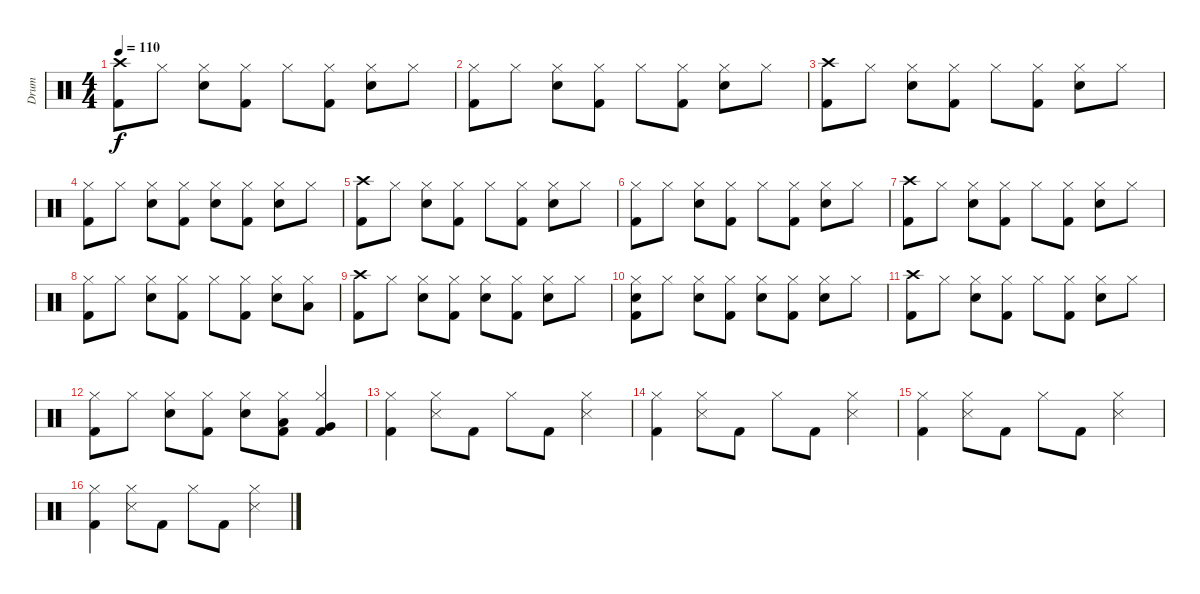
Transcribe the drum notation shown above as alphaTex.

\track ("Drum" "Drum") {instrument percussion}
\staff {score}
\articulation defaults
\ts (4 4)
\tempo 110
\clef neutral
\ks c
("Crash high (hit)" "Kick (hit) 2").8{dy f} "Hi-Hat (closed)".8 ("Hi-Hat (closed)" "Electric Snare (hit)").8 ("Hi-Hat (closed)" "Kick (hit) 2").8 "Hi-Hat (closed)".8 ("Hi-Hat (closed)" "Kick (hit) 2").8 ("Hi-Hat (closed)" "Electric Snare (hit)").8 "Hi-Hat (closed)".8 |
("Hi-Hat (closed)" "Kick (hit) 2").8 "Hi-Hat (closed)".8 ("Hi-Hat (closed)" "Electric Snare (hit)").8 ("Hi-Hat (closed)" "Kick (hit) 2").8 "Hi-Hat (closed)".8 ("Hi-Hat (closed)" "Kick (hit) 2").8 ("Hi-Hat (closed)" "Electric Snare (hit)").8 "Hi-Hat (closed)".8 |
("Crash high (hit)" "Kick (hit) 2").8 "Hi-Hat (closed)".8 ("Hi-Hat (closed)" "Electric Snare (hit)").8 ("Hi-Hat (closed)" "Kick (hit) 2").8 "Hi-Hat (closed)".8 ("Hi-Hat (closed)" "Kick (hit) 2").8 ("Hi-Hat (closed)" "Electric Snare (hit)").8 "Hi-Hat (closed)".8 |
("Hi-Hat (closed)" "Kick (hit) 2").8 "Hi-Hat (closed)".8 ("Hi-Hat (closed)" "Electric Snare (hit)").8 ("Hi-Hat (closed)" "Kick (hit) 2").8 ("Hi-Hat (closed)" "Electric Snare (hit)").8 ("Hi-Hat (closed)" "Kick (hit) 2").8 ("Hi-Hat (closed)" "Electric Snare (hit)").8 "Hi-Hat (closed)".8 |
("Crash high (hit)" "Kick (hit) 2").8 "Hi-Hat (closed)".8 ("Hi-Hat (closed)" "Electric Snare (hit)").8 ("Hi-Hat (closed)" "Kick (hit) 2").8 "Hi-Hat (closed)".8 ("Hi-Hat (closed)" "Kick (hit) 2").8 ("Hi-Hat (closed)" "Electric Snare (hit)").8 "Hi-Hat (closed)".8 |
("Hi-Hat (closed)" "Kick (hit) 2").8 "Hi-Hat (closed)".8 ("Hi-Hat (closed)" "Electric Snare (hit)").8 ("Hi-Hat (closed)" "Kick (hit) 2").8 "Hi-Hat (closed)".8 ("Hi-Hat (closed)" "Kick (hit) 2").8 ("Hi-Hat (closed)" "Electric Snare (hit)").8 "Hi-Hat (closed)".8 |
("Crash high (hit)" "Kick (hit) 2").8 "Hi-Hat (closed)".8 ("Hi-Hat (closed)" "Electric Snare (hit)").8 ("Hi-Hat (closed)" "Kick (hit) 2").8 "Hi-Hat (closed)".8 ("Hi-Hat (closed)" "Kick (hit) 2").8 ("Hi-Hat (closed)" "Electric Snare (hit)").8 "Hi-Hat (closed)".8 |
("Hi-Hat (closed)" "Kick (hit) 2").8 "Hi-Hat (closed)".8 ("Hi-Hat (closed)" "Electric Snare (hit)").8 ("Hi-Hat (closed)" "Kick (hit) 2").8 "Hi-Hat (closed)".8 ("Hi-Hat (closed)" "Kick (hit) 2").8 ("Hi-Hat (closed)" "Electric Snare (hit)").8 ("Hi-Hat (closed)" "Low Tom (hit)").8 |
("Crash high (hit)" "Kick (hit) 2").8 "Hi-Hat (closed)".8 ("Hi-Hat (closed)" "Electric Snare (hit)").8 ("Hi-Hat (closed)" "Kick (hit) 2").8 ("Hi-Hat (closed)" "Electric Snare (hit)").8 ("Hi-Hat (closed)" "Kick (hit) 2").8 ("Hi-Hat (closed)" "Electric Snare (hit)").8 "Hi-Hat (closed)".8 |
("Hi-Hat (closed)" "Electric Snare (hit)" "Kick (hit) 2").8 "Hi-Hat (closed)".8 ("Hi-Hat (closed)" "Electric Snare (hit)").8 ("Hi-Hat (closed)" "Kick (hit) 2").8 ("Hi-Hat (closed)" "Electric Snare (hit)").8 ("Hi-Hat (closed)" "Kick (hit) 2").8 ("Hi-Hat (closed)" "Electric Snare (hit)").8 "Hi-Hat (closed)".8 |
("Crash high (hit)" "Kick (hit) 2").8 "Hi-Hat (closed)".8 ("Hi-Hat (closed)" "Electric Snare (hit)").8 ("Hi-Hat (closed)" "Kick (hit) 2").8 "Hi-Hat (closed)".8 ("Hi-Hat (closed)" "Kick (hit) 2").8 ("Hi-Hat (closed)" "Electric Snare (hit)").8 "Hi-Hat (closed)".8 |
("Hi-Hat (closed)" "Kick (hit) 2").8 "Hi-Hat (closed)".8 ("Hi-Hat (closed)" "Electric Snare (hit)").8 ("Hi-Hat (closed)" "Kick (hit) 2").8 ("Hi-Hat (closed)" "Electric Snare (hit)").8 ("Hi-Hat (closed)" "Low Tom (hit)" "Kick (hit) 2").8 ("Hi-Hat (closed)" "Very Low Tom (hit)" "Kick (hit) 2").4 |
("Hi-Hat (closed)" "Kick (hit) 2").4 ("Hi-Hat (closed)" "Snare (side stick) 3").8 "Kick (hit) 2".8 "Hi-Hat (closed)".8 "Kick (hit) 2".8 ("Hi-Hat (closed)" "Snare (side stick) 3").4 |
("Hi-Hat (closed)" "Kick (hit) 2").4 ("Hi-Hat (closed)" "Snare (side stick) 3").8 "Kick (hit) 2".8 "Hi-Hat (closed)".8 "Kick (hit) 2".8 ("Hi-Hat (closed)" "Snare (side stick) 3").4 |
("Hi-Hat (closed)" "Kick (hit) 2").4 ("Hi-Hat (closed)" "Snare (side stick) 3").8 "Kick (hit) 2".8 "Hi-Hat (closed)".8 "Kick (hit) 2".8 ("Hi-Hat (closed)" "Snare (side stick) 3").4 |
("Hi-Hat (closed)" "Kick (hit) 2").4 ("Hi-Hat (closed)" "Snare (side stick) 3").8 "Kick (hit) 2".8 "Hi-Hat (closed)".8 "Kick (hit) 2".8 ("Hi-Hat (closed)" "Snare (side stick) 3").4
